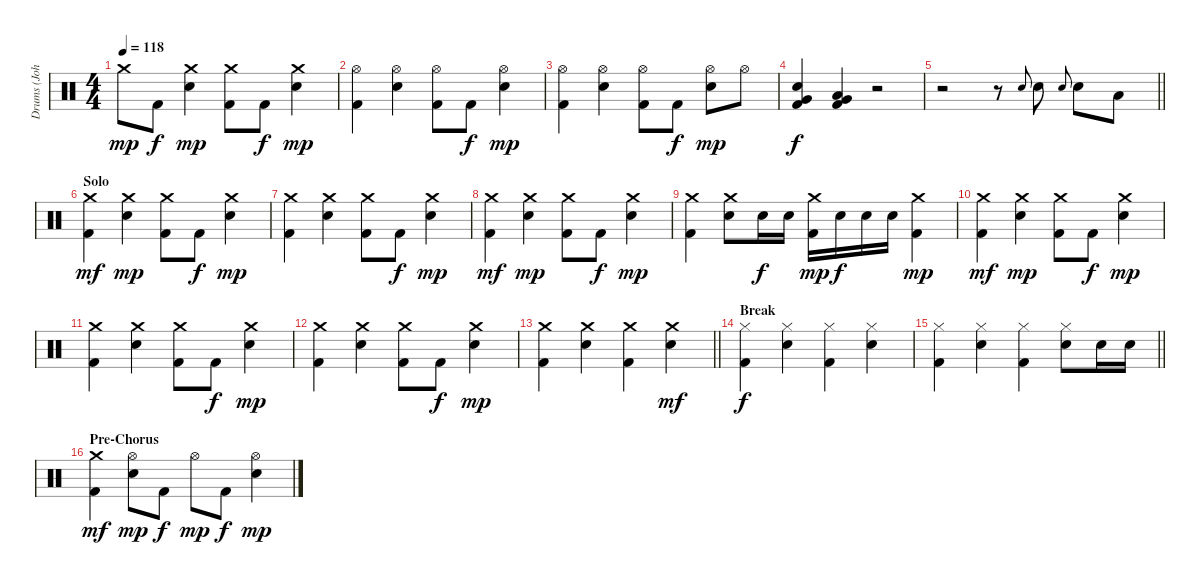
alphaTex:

\track ("Drums (John Fred Young)" "Drums (Joh") {instrument percussion}
\staff {score}
\articulation defaults
\ts (4 4)
\tempo 118
\clef neutral
\ks c "Crash medium (hit)".8{dy mp} "Kick (hit) 2".8{dy f}
("Crash medium (hit)" "Electric Snare (hit)").4{dy mp} ("Crash medium (hit)" "Kick (hit) 2").8 "Kick (hit) 2".8{dy f} ("Crash medium (hit)" "Electric Snare (hit)").4{dy mp} |
("Hi-Hat (open)" "Kick (hit) 2").4 ("Hi-Hat (open)" "Electric Snare (hit)").4 ("Hi-Hat (open)" "Kick (hit) 2").8 "Kick (hit) 2".8{dy f} ("Hi-Hat (open)" "Electric Snare (hit)").4{dy mp} |
("Hi-Hat (open)" "Kick (hit) 2").4 ("Hi-Hat (open)" "Electric Snare (hit)").4 ("Hi-Hat (open)" "Kick (hit) 2").8 "Kick (hit) 2".8{dy f} ("Hi-Hat (open)" "Electric Snare (hit)").8{dy mp} "Hi-Hat (open)".8 |
("Electric Snare (hit)" "Very Low Tom (hit)" "Kick (hit) 2").4{dy f} ("Very Low Tom (hit)" "Low Floor Tom (hit)" "Kick (hit) 2").4 r.2 |
\barLineRight lightlight
r.2 r.8 "Electric Snare (hit)".8{gr onbeat} "Electric Snare (hit)".8 "Electric Snare (hit)".8{gr onbeat} "Electric Snare (hit)".8 "Low Tom (hit)".8 |
\section ("" "Solo")
("Crash medium (hit)" "Kick (hit) 2").4{dy mf} ("Crash medium (hit)" "Electric Snare (hit)").4{dy mp} ("Crash medium (hit)" "Kick (hit) 2").8 "Kick (hit) 2".8{dy f} ("Crash medium (hit)" "Electric Snare (hit)").4{dy mp} |
("Crash medium (hit)" "Kick (hit) 2").4 ("Crash medium (hit)" "Electric Snare (hit)").4 ("Crash medium (hit)" "Kick (hit) 2").8 "Kick (hit) 2".8{dy f} ("Crash medium (hit)" "Electric Snare (hit)").4{dy mp} |
("Crash medium (hit)" "Kick (hit) 2").4{dy mf} ("Crash medium (hit)" "Electric Snare (hit)").4{dy mp} ("Crash medium (hit)" "Kick (hit) 2").8 "Kick (hit) 2".8{dy f} ("Crash medium (hit)" "Electric Snare (hit)").4{dy mp} |
("Crash medium (hit)" "Kick (hit) 2").4 ("Crash medium (hit)" "Electric Snare (hit)").8 "Electric Snare (hit)".16{dy f} "Electric Snare (hit)".16 ("Crash medium (hit)" "Kick (hit) 2").16{dy mp} "Electric Snare (hit)".16{dy f} "Electric Snare (hit)".16 "Electric Snare (hit)".16 ("Crash medium (hit)" "Kick (hit) 2").4{dy mp} |
("Crash medium (hit)" "Kick (hit) 2").4{dy mf} ("Crash medium (hit)" "Electric Snare (hit)").4{dy mp} ("Crash medium (hit)" "Kick (hit) 2").8 "Kick (hit) 2".8{dy f} ("Crash medium (hit)" "Electric Snare (hit)").4{dy mp} |
("Crash medium (hit)" "Kick (hit) 2").4 ("Crash medium (hit)" "Electric Snare (hit)").4 ("Crash medium (hit)" "Kick (hit) 2").8 "Kick (hit) 2".8{dy f} ("Crash medium (hit)" "Electric Snare (hit)").4{dy mp} |
("Crash medium (hit)" "Kick (hit) 2").4 ("Crash medium (hit)" "Electric Snare (hit)").4 ("Crash medium (hit)" "Kick (hit) 2").8 "Kick (hit) 2".8{dy f} ("Crash medium (hit)" "Electric Snare (hit)").4{dy mp} |
\barLineRight lightlight
("Crash medium (hit)" "Kick (hit) 2").4 ("Crash medium (hit)" "Electric Snare (hit)").4 ("Crash medium (hit)" "Kick (hit) 2").4 ("Crash medium (hit)" "Electric Snare (hit)").4{dy mf} |
\section ("" "Break")
("Hi-Hat (closed)" "Kick (hit) 2").4{dy f} ("Hi-Hat (closed)" "Electric Snare (hit)").4 ("Hi-Hat (closed)" "Kick (hit) 2").4 ("Hi-Hat (closed)" "Electric Snare (hit)").4 |
\barLineRight lightlight
("Hi-Hat (closed)" "Kick (hit) 2").4 ("Hi-Hat (closed)" "Electric Snare (hit)").4 ("Hi-Hat (closed)" "Kick (hit) 2").4 ("Hi-Hat (closed)" "Electric Snare (hit)").8 "Electric Snare (hit)".16 "Electric Snare (hit)".16 |
\section ("" "Pre-Chorus")
("Crash medium (hit)" "Kick (hit) 2").4{dy mf} ("Hi-Hat (open)" "Electric Snare (hit)").8{dy mp} "Kick (hit) 2".8{dy f} "Hi-Hat (open)".8{dy mp} "Kick (hit) 2".8{dy f} ("Hi-Hat (open)" "Electric Snare (hit)").4{dy mp}
